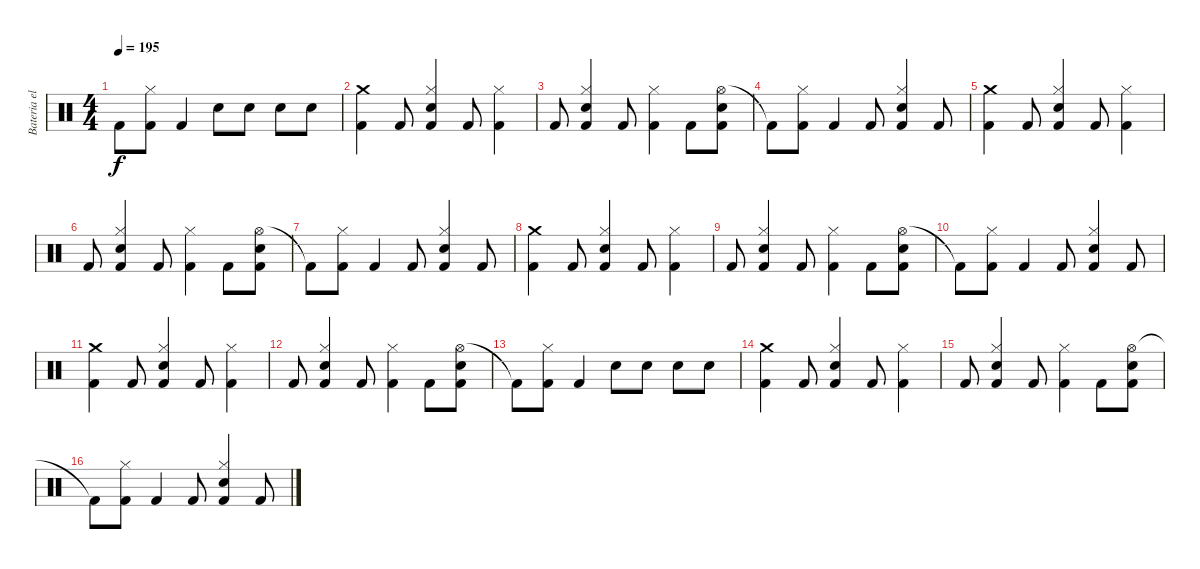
\track ("Bateria electrica" "Bateria el") {instrument percussion}
\staff {score}
\articulation defaults
\ts (4 4)
\tempo 195
\clef neutral
\ks c "Kick (hit) 2"{t}.8{dy f}
("Hi-Hat (closed)" "Kick (hit) 2").8 "Kick (hit) 2".4 "Snare (hit) 2".8 "Snare (hit) 2".8 "Snare (hit) 2".8 "Snare (hit) 2".8 |
("Crash medium (hit)" "Kick (hit) 2").4 "Kick (hit) 2".8 ("Hi-Hat (closed)" "Kick (hit) 2" "Snare (hit) 2").4 "Kick (hit) 2".8 ("Hi-Hat (closed)" "Kick (hit) 2").4 |
"Kick (hit) 2".8 ("Hi-Hat (closed)" "Kick (hit) 2" "Snare (hit) 2").4 "Kick (hit) 2".8 ("Hi-Hat (closed)" "Kick (hit) 2").4 "Kick (hit) 2".8 ("Hi-Hat (open)" "Kick (hit) 2" "Snare (hit) 2").8 |
"Kick (hit) 2"{t}.8 ("Hi-Hat (closed)" "Kick (hit) 2").8 "Kick (hit) 2".4 "Kick (hit) 2".8 ("Hi-Hat (closed)" "Kick (hit) 2" "Snare (hit) 2").4 "Kick (hit) 2".8 |
("Crash medium (hit)" "Kick (hit) 2").4 "Kick (hit) 2".8 ("Hi-Hat (closed)" "Kick (hit) 2" "Snare (hit) 2").4 "Kick (hit) 2".8 ("Hi-Hat (closed)" "Kick (hit) 2").4 |
"Kick (hit) 2".8 ("Hi-Hat (closed)" "Kick (hit) 2" "Snare (hit) 2").4 "Kick (hit) 2".8 ("Hi-Hat (closed)" "Kick (hit) 2").4 "Kick (hit) 2".8 ("Hi-Hat (open)" "Kick (hit) 2" "Snare (hit) 2").8 |
"Kick (hit) 2"{t}.8 ("Hi-Hat (closed)" "Kick (hit) 2").8 "Kick (hit) 2".4 "Kick (hit) 2".8 ("Hi-Hat (closed)" "Kick (hit) 2" "Snare (hit) 2").4 "Kick (hit) 2".8 |
("Crash medium (hit)" "Kick (hit) 2").4 "Kick (hit) 2".8 ("Hi-Hat (closed)" "Kick (hit) 2" "Snare (hit) 2").4 "Kick (hit) 2".8 ("Hi-Hat (closed)" "Kick (hit) 2").4 |
"Kick (hit) 2".8 ("Hi-Hat (closed)" "Kick (hit) 2" "Snare (hit) 2").4 "Kick (hit) 2".8 ("Hi-Hat (closed)" "Kick (hit) 2").4 "Kick (hit) 2".8 ("Hi-Hat (open)" "Kick (hit) 2" "Snare (hit) 2").8 |
"Kick (hit) 2"{t}.8 ("Hi-Hat (closed)" "Kick (hit) 2").8 "Kick (hit) 2".4 "Kick (hit) 2".8 ("Hi-Hat (closed)" "Kick (hit) 2" "Snare (hit) 2").4 "Kick (hit) 2".8 |
("Crash medium (hit)" "Kick (hit) 2").4 "Kick (hit) 2".8 ("Hi-Hat (closed)" "Kick (hit) 2" "Snare (hit) 2").4 "Kick (hit) 2".8 ("Hi-Hat (closed)" "Kick (hit) 2").4 |
"Kick (hit) 2".8 ("Hi-Hat (closed)" "Kick (hit) 2" "Snare (hit) 2").4 "Kick (hit) 2".8 ("Hi-Hat (closed)" "Kick (hit) 2").4 "Kick (hit) 2".8 ("Hi-Hat (open)" "Kick (hit) 2" "Snare (hit) 2").8 |
"Kick (hit) 2"{t}.8 ("Hi-Hat (closed)" "Kick (hit) 2").8 "Kick (hit) 2".4 "Snare (hit) 2".8 "Snare (hit) 2".8 "Snare (hit) 2".8 "Snare (hit) 2".8 |
("Crash medium (hit)" "Kick (hit) 2").4 "Kick (hit) 2".8 ("Hi-Hat (closed)" "Kick (hit) 2" "Snare (hit) 2").4 "Kick (hit) 2".8 ("Hi-Hat (closed)" "Kick (hit) 2").4 |
"Kick (hit) 2".8 ("Hi-Hat (closed)" "Kick (hit) 2" "Snare (hit) 2").4 "Kick (hit) 2".8 ("Hi-Hat (closed)" "Kick (hit) 2").4 "Kick (hit) 2".8 ("Hi-Hat (open)" "Kick (hit) 2" "Snare (hit) 2").8 |
"Kick (hit) 2"{t}.8 ("Hi-Hat (closed)" "Kick (hit) 2").8 "Kick (hit) 2".4 "Kick (hit) 2".8 ("Hi-Hat (closed)" "Kick (hit) 2" "Snare (hit) 2").4 "Kick (hit) 2".8
